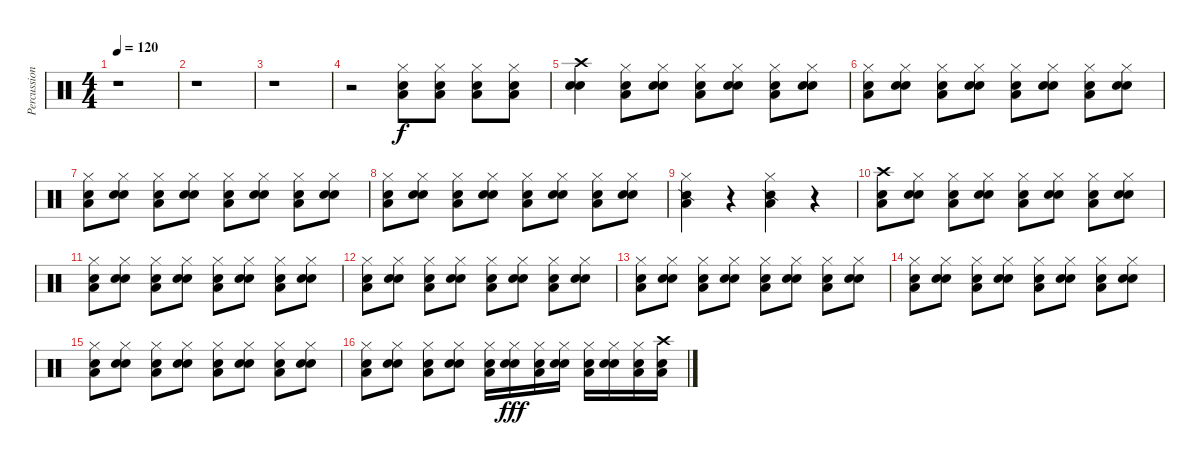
\track ("Percussions" "Percussion") {instrument percussion}
\staff {score}
\articulation defaults
\ts (4 4)
\tempo 120
\clef neutral
\ks c
r.1{dy fff} |
r.1 |
r.1 |
r.2 ("Low Floor Tom (hit)" "Snare (hit) 2" "Hi-Hat (closed)").8{dy f} ("Low Floor Tom (hit)" "Snare (hit) 2" "Hi-Hat (closed)").8 ("Low Floor Tom (hit)" "Snare (hit) 2" "Hi-Hat (closed)").8 ("Low Floor Tom (hit)" "Snare (hit) 2" "Hi-Hat (closed)").8 |
("Electric Snare (hit)" "Snare (hit) 2" "Crash high (hit)").4 ("Low Floor Tom (hit)" "Snare (hit) 2" "Hi-Hat (closed)").8 ("Electric Snare (hit)" "Snare (hit) 2" "Hi-Hat (closed)").8 ("Low Floor Tom (hit)" "Snare (hit) 2" "Hi-Hat (closed)").8 ("Electric Snare (hit)" "Snare (hit) 2" "Hi-Hat (closed)").8 ("Low Floor Tom (hit)" "Snare (hit) 2" "Hi-Hat (closed)").8 ("Electric Snare (hit)" "Snare (hit) 2" "Hi-Hat (closed)").8 |
("Low Floor Tom (hit)" "Snare (hit) 2" "Hi-Hat (closed)").8 ("Electric Snare (hit)" "Snare (hit) 2" "Hi-Hat (closed)").8 ("Low Floor Tom (hit)" "Snare (hit) 2" "Hi-Hat (closed)").8 ("Electric Snare (hit)" "Snare (hit) 2" "Hi-Hat (closed)").8 ("Low Floor Tom (hit)" "Snare (hit) 2" "Hi-Hat (closed)").8 ("Electric Snare (hit)" "Snare (hit) 2" "Hi-Hat (closed)").8 ("Low Floor Tom (hit)" "Snare (hit) 2" "Hi-Hat (closed)").8 ("Electric Snare (hit)" "Snare (hit) 2" "Hi-Hat (closed)").8 |
("Low Floor Tom (hit)" "Snare (hit) 2" "Hi-Hat (closed)").8 ("Electric Snare (hit)" "Snare (hit) 2" "Hi-Hat (closed)").8 ("Low Floor Tom (hit)" "Snare (hit) 2" "Hi-Hat (closed)").8 ("Electric Snare (hit)" "Snare (hit) 2" "Hi-Hat (closed)").8 ("Low Floor Tom (hit)" "Snare (hit) 2" "Hi-Hat (closed)").8 ("Electric Snare (hit)" "Snare (hit) 2" "Hi-Hat (closed)").8 ("Low Floor Tom (hit)" "Snare (hit) 2" "Hi-Hat (closed)").8 ("Electric Snare (hit)" "Snare (hit) 2" "Hi-Hat (closed)").8 |
("Low Floor Tom (hit)" "Snare (hit) 2" "Hi-Hat (closed)").8 ("Electric Snare (hit)" "Snare (hit) 2" "Hi-Hat (closed)").8 ("Low Floor Tom (hit)" "Snare (hit) 2" "Hi-Hat (closed)").8 ("Electric Snare (hit)" "Snare (hit) 2" "Hi-Hat (closed)").8 ("Low Floor Tom (hit)" "Snare (hit) 2" "Hi-Hat (closed)").8 ("Electric Snare (hit)" "Snare (hit) 2" "Hi-Hat (closed)").8 ("Low Floor Tom (hit)" "Snare (hit) 2" "Hi-Hat (closed)").8 ("Electric Snare (hit)" "Snare (hit) 2" "Hi-Hat (closed)").8 |
("Low Floor Tom (hit)" "Snare (side stick) 2" "Hi-Hat (closed)").4 r.4 ("Low Floor Tom (hit)" "Snare (side stick) 2" "Hi-Hat (closed)").4 r.4 |
("Low Floor Tom (hit)" "Snare (hit) 2" "Crash high (hit)").8 ("Electric Snare (hit)" "Snare (hit) 2" "Hi-Hat (closed)").8 ("Low Floor Tom (hit)" "Snare (hit) 2" "Hi-Hat (closed)").8 ("Electric Snare (hit)" "Snare (hit) 2" "Hi-Hat (closed)").8 ("Low Floor Tom (hit)" "Snare (hit) 2" "Hi-Hat (closed)").8 ("Electric Snare (hit)" "Snare (hit) 2" "Hi-Hat (closed)").8 ("Low Floor Tom (hit)" "Snare (hit) 2" "Hi-Hat (closed)").8 ("Electric Snare (hit)" "Snare (hit) 2" "Hi-Hat (closed)").8 |
("Low Floor Tom (hit)" "Snare (hit) 2" "Hi-Hat (closed)").8 ("Electric Snare (hit)" "Snare (hit) 2" "Hi-Hat (closed)").8 ("Low Floor Tom (hit)" "Snare (hit) 2" "Hi-Hat (closed)").8 ("Electric Snare (hit)" "Snare (hit) 2" "Hi-Hat (closed)").8 ("Low Floor Tom (hit)" "Snare (hit) 2" "Hi-Hat (closed)").8 ("Electric Snare (hit)" "Snare (hit) 2" "Hi-Hat (closed)").8 ("Low Floor Tom (hit)" "Snare (hit) 2" "Hi-Hat (closed)").8 ("Electric Snare (hit)" "Snare (hit) 2" "Hi-Hat (closed)").8 |
("Low Floor Tom (hit)" "Snare (hit) 2" "Hi-Hat (closed)").8 ("Electric Snare (hit)" "Snare (hit) 2" "Hi-Hat (closed)").8 ("Low Floor Tom (hit)" "Snare (hit) 2" "Hi-Hat (closed)").8 ("Electric Snare (hit)" "Snare (hit) 2" "Hi-Hat (closed)").8 ("Low Floor Tom (hit)" "Snare (hit) 2" "Hi-Hat (closed)").8 ("Electric Snare (hit)" "Snare (hit) 2" "Hi-Hat (closed)").8 ("Low Floor Tom (hit)" "Snare (hit) 2" "Hi-Hat (closed)").8 ("Electric Snare (hit)" "Snare (hit) 2" "Hi-Hat (closed)").8 |
("Low Floor Tom (hit)" "Snare (hit) 2" "Hi-Hat (closed)").8 ("Electric Snare (hit)" "Snare (hit) 2" "Hi-Hat (closed)").8 ("Low Floor Tom (hit)" "Snare (hit) 2" "Hi-Hat (closed)").8 ("Electric Snare (hit)" "Snare (hit) 2" "Hi-Hat (closed)").8 ("Low Floor Tom (hit)" "Snare (hit) 2" "Hi-Hat (closed)").8 ("Electric Snare (hit)" "Snare (hit) 2" "Hi-Hat (closed)").8 ("Low Floor Tom (hit)" "Snare (hit) 2" "Hi-Hat (closed)").8 ("Electric Snare (hit)" "Snare (hit) 2" "Hi-Hat (closed)").8 |
("Low Floor Tom (hit)" "Snare (hit) 2" "Hi-Hat (closed)").8 ("Electric Snare (hit)" "Snare (hit) 2" "Hi-Hat (closed)").8 ("Low Floor Tom (hit)" "Snare (hit) 2" "Hi-Hat (closed)").8 ("Electric Snare (hit)" "Snare (hit) 2" "Hi-Hat (closed)").8 ("Low Floor Tom (hit)" "Snare (hit) 2" "Hi-Hat (closed)").8 ("Electric Snare (hit)" "Snare (hit) 2" "Hi-Hat (closed)").8 ("Low Floor Tom (hit)" "Snare (hit) 2" "Hi-Hat (closed)").8 ("Electric Snare (hit)" "Snare (hit) 2" "Hi-Hat (closed)").8 |
("Low Floor Tom (hit)" "Snare (hit) 2" "Hi-Hat (closed)").8 ("Electric Snare (hit)" "Snare (hit) 2" "Hi-Hat (closed)").8 ("Low Floor Tom (hit)" "Snare (hit) 2" "Hi-Hat (closed)").8 ("Electric Snare (hit)" "Snare (hit) 2" "Hi-Hat (closed)").8 ("Low Floor Tom (hit)" "Snare (hit) 2" "Hi-Hat (closed)").8 ("Electric Snare (hit)" "Snare (hit) 2" "Hi-Hat (closed)").8 ("Low Floor Tom (hit)" "Snare (hit) 2" "Hi-Hat (closed)").8 ("Electric Snare (hit)" "Snare (hit) 2" "Hi-Hat (closed)").8 |
("Low Floor Tom (hit)" "Snare (hit) 2" "Hi-Hat (closed)").8 ("Electric Snare (hit)" "Snare (hit) 2" "Hi-Hat (closed)").8 ("Low Floor Tom (hit)" "Snare (hit) 2" "Hi-Hat (closed)").8 ("Electric Snare (hit)" "Snare (hit) 2" "Hi-Hat (closed)").8 ("Low Floor Tom (hit)" "Snare (hit) 2" "Hi-Hat (closed)").16 ("Electric Snare (hit)" "Snare (hit) 2" "Hi-Hat (closed)").16{dy fff} ("Low Floor Tom (hit)" "Snare (hit) 2" "Hi-Hat (closed)").16 ("Electric Snare (hit)" "Snare (hit) 2" "Hi-Hat (closed)").16 ("Low Floor Tom (hit)" "Snare (hit) 2" "Hi-Hat (closed)").16 ("Electric Snare (hit)" "Snare (hit) 2" "Hi-Hat (closed)").16 ("Low Floor Tom (hit)" "Snare (hit) 2" "Hi-Hat (closed)").16 ("Low Floor Tom (hit)" "Snare (hit) 2" "Crash high (hit)").16
